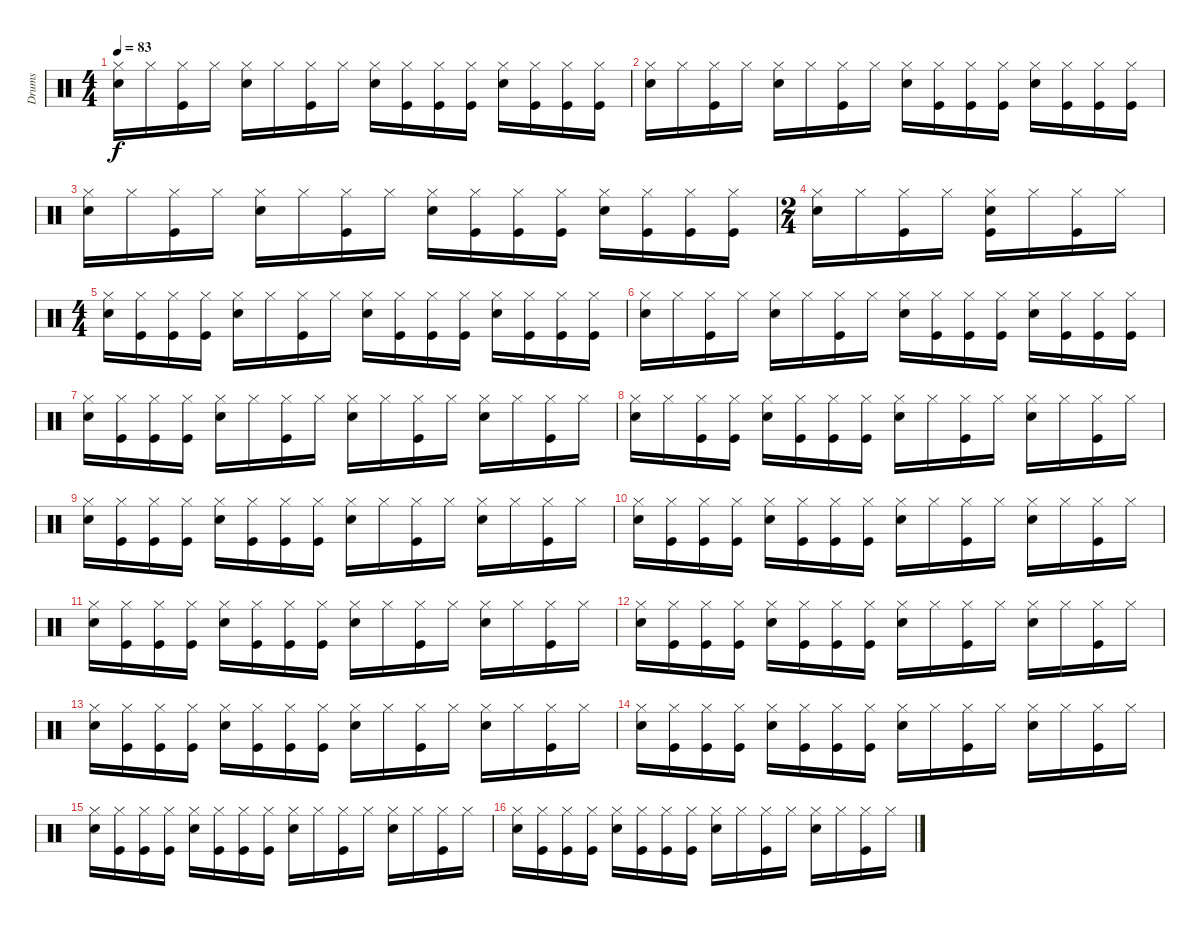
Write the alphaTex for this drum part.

\track ("Drums" "Drums") {instrument percussion}
\staff {score}
\articulation defaults
\ts (4 4)
\tempo 83
\clef neutral
\ks c
("Snare (hit) 2" "Hi-Hat (closed)").16{dy f} "Hi-Hat (closed)".16 ("Kick (hit)" "Hi-Hat (closed)").16 "Hi-Hat (closed)".16 ("Snare (hit) 2" "Hi-Hat (closed)").16 "Hi-Hat (closed)".16 ("Kick (hit)" "Hi-Hat (closed)").16 "Hi-Hat (closed)".16 ("Snare (hit) 2" "Hi-Hat (closed)").16 ("Kick (hit)" "Hi-Hat (closed)").16 ("Kick (hit)" "Hi-Hat (closed)").16 ("Kick (hit)" "Hi-Hat (closed)").16 ("Snare (hit) 2" "Hi-Hat (closed)").16 ("Kick (hit)" "Hi-Hat (closed)").16 ("Kick (hit)" "Hi-Hat (closed)").16 ("Kick (hit)" "Hi-Hat (closed)").16 |
("Snare (hit) 2" "Hi-Hat (closed)").16 "Hi-Hat (closed)".16 ("Kick (hit)" "Hi-Hat (closed)").16 "Hi-Hat (closed)".16 ("Snare (hit) 2" "Hi-Hat (closed)").16 "Hi-Hat (closed)".16 ("Kick (hit)" "Hi-Hat (closed)").16 "Hi-Hat (closed)".16 ("Snare (hit) 2" "Hi-Hat (closed)").16 ("Kick (hit)" "Hi-Hat (closed)").16 ("Kick (hit)" "Hi-Hat (closed)").16 ("Kick (hit)" "Hi-Hat (closed)").16 ("Snare (hit) 2" "Hi-Hat (closed)").16 ("Kick (hit)" "Hi-Hat (closed)").16 ("Kick (hit)" "Hi-Hat (closed)").16 ("Kick (hit)" "Hi-Hat (closed)").16 |
("Snare (hit) 2" "Hi-Hat (closed)").16 "Hi-Hat (closed)".16 ("Kick (hit)" "Hi-Hat (closed)").16 "Hi-Hat (closed)".16 ("Snare (hit) 2" "Hi-Hat (closed)").16 "Hi-Hat (closed)".16 ("Kick (hit)" "Hi-Hat (closed)").16 "Hi-Hat (closed)".16 ("Snare (hit) 2" "Hi-Hat (closed)").16 ("Kick (hit)" "Hi-Hat (closed)").16 ("Kick (hit)" "Hi-Hat (closed)").16 ("Kick (hit)" "Hi-Hat (closed)").16 ("Snare (hit) 2" "Hi-Hat (closed)").16 ("Kick (hit)" "Hi-Hat (closed)").16 ("Kick (hit)" "Hi-Hat (closed)").16 ("Kick (hit)" "Hi-Hat (closed)").16 |
\ts (2 4)
("Snare (hit) 2" "Hi-Hat (closed)").16 "Hi-Hat (closed)".16 ("Kick (hit)" "Hi-Hat (closed)").16 "Hi-Hat (closed)".16 ("Kick (hit)" "Snare (hit) 2" "Hi-Hat (closed)").16 "Hi-Hat (closed)".16 ("Kick (hit)" "Hi-Hat (closed)").16 "Hi-Hat (closed)".16 |
\ts (4 4)
("Snare (hit) 2" "Hi-Hat (closed)").16 ("Kick (hit)" "Hi-Hat (closed)").16 ("Kick (hit)" "Hi-Hat (closed)").16 ("Kick (hit)" "Hi-Hat (closed)").16 ("Snare (hit) 2" "Hi-Hat (closed)").16 "Hi-Hat (closed)".16 ("Kick (hit)" "Hi-Hat (closed)").16 "Hi-Hat (closed)".16 ("Snare (hit) 2" "Hi-Hat (closed)").16 ("Kick (hit)" "Hi-Hat (closed)").16 ("Kick (hit)" "Hi-Hat (closed)").16 ("Kick (hit)" "Hi-Hat (closed)").16 ("Snare (hit) 2" "Hi-Hat (closed)").16 ("Kick (hit)" "Hi-Hat (closed)").16 ("Kick (hit)" "Hi-Hat (closed)").16 ("Kick (hit)" "Hi-Hat (closed)").16 |
("Snare (hit) 2" "Hi-Hat (closed)").16 "Hi-Hat (closed)".16 ("Kick (hit)" "Hi-Hat (closed)").16 "Hi-Hat (closed)".16 ("Snare (hit) 2" "Hi-Hat (closed)").16 "Hi-Hat (closed)".16 ("Kick (hit)" "Hi-Hat (closed)").16 "Hi-Hat (closed)".16 ("Snare (hit) 2" "Hi-Hat (closed)").16 ("Kick (hit)" "Hi-Hat (closed)").16 ("Kick (hit)" "Hi-Hat (closed)").16 ("Kick (hit)" "Hi-Hat (closed)").16 ("Snare (hit) 2" "Hi-Hat (closed)").16 ("Kick (hit)" "Hi-Hat (closed)").16 ("Kick (hit)" "Hi-Hat (closed)").16 ("Kick (hit)" "Hi-Hat (closed)").16 |
("Snare (hit) 2" "Hi-Hat (closed)").16 ("Kick (hit)" "Hi-Hat (closed)").16 ("Kick (hit)" "Hi-Hat (closed)").16 ("Kick (hit)" "Hi-Hat (closed)").16 ("Snare (hit) 2" "Hi-Hat (closed)").16 "Hi-Hat (closed)".16 ("Kick (hit)" "Hi-Hat (closed)").16 "Hi-Hat (closed)".16 ("Snare (hit) 2" "Hi-Hat (closed)").16 "Hi-Hat (closed)".16 ("Kick (hit)" "Hi-Hat (closed)").16 "Hi-Hat (closed)".16 ("Snare (hit) 2" "Hi-Hat (closed)").16 "Hi-Hat (closed)".16 ("Kick (hit)" "Hi-Hat (closed)").16 "Hi-Hat (closed)".16 |
("Snare (hit) 2" "Hi-Hat (closed)").16 "Hi-Hat (closed)".16 ("Kick (hit)" "Hi-Hat (closed)").16 ("Kick (hit)" "Hi-Hat (closed)").16 ("Snare (hit) 2" "Hi-Hat (closed)").16 ("Kick (hit)" "Hi-Hat (closed)").16 ("Kick (hit)" "Hi-Hat (closed)").16 ("Kick (hit)" "Hi-Hat (closed)").16 ("Snare (hit) 2" "Hi-Hat (closed)").16 "Hi-Hat (closed)".16 ("Kick (hit)" "Hi-Hat (closed)").16 "Hi-Hat (closed)".16 ("Snare (hit) 2" "Hi-Hat (closed)").16 "Hi-Hat (closed)".16 ("Kick (hit)" "Hi-Hat (closed)").16 "Hi-Hat (closed)".16 |
("Snare (hit) 2" "Hi-Hat (closed)").16 ("Kick (hit)" "Hi-Hat (closed)").16 ("Kick (hit)" "Hi-Hat (closed)").16 ("Kick (hit)" "Hi-Hat (closed)").16 ("Snare (hit) 2" "Hi-Hat (closed)").16 ("Kick (hit)" "Hi-Hat (closed)").16 ("Kick (hit)" "Hi-Hat (closed)").16 ("Kick (hit)" "Hi-Hat (closed)").16 ("Snare (hit) 2" "Hi-Hat (closed)").16 "Hi-Hat (closed)".16 ("Kick (hit)" "Hi-Hat (closed)").16 "Hi-Hat (closed)".16 ("Snare (hit) 2" "Hi-Hat (closed)").16 "Hi-Hat (closed)".16 ("Kick (hit)" "Hi-Hat (closed)").16 "Hi-Hat (closed)".16 |
("Snare (hit) 2" "Hi-Hat (closed)").16 ("Kick (hit)" "Hi-Hat (closed)").16 ("Kick (hit)" "Hi-Hat (closed)").16 ("Kick (hit)" "Hi-Hat (closed)").16 ("Snare (hit) 2" "Hi-Hat (closed)").16 ("Kick (hit)" "Hi-Hat (closed)").16 ("Kick (hit)" "Hi-Hat (closed)").16 ("Kick (hit)" "Hi-Hat (closed)").16 ("Snare (hit) 2" "Hi-Hat (closed)").16 "Hi-Hat (closed)".16 ("Kick (hit)" "Hi-Hat (closed)").16 "Hi-Hat (closed)".16 ("Snare (hit) 2" "Hi-Hat (closed)").16 "Hi-Hat (closed)".16 ("Kick (hit)" "Hi-Hat (closed)").16 "Hi-Hat (closed)".16 |
("Snare (hit) 2" "Hi-Hat (closed)").16 ("Kick (hit)" "Hi-Hat (closed)").16 ("Kick (hit)" "Hi-Hat (closed)").16 ("Kick (hit)" "Hi-Hat (closed)").16 ("Snare (hit) 2" "Hi-Hat (closed)").16 ("Kick (hit)" "Hi-Hat (closed)").16 ("Kick (hit)" "Hi-Hat (closed)").16 ("Kick (hit)" "Hi-Hat (closed)").16 ("Snare (hit) 2" "Hi-Hat (closed)").16 "Hi-Hat (closed)".16 ("Kick (hit)" "Hi-Hat (closed)").16 "Hi-Hat (closed)".16 ("Snare (hit) 2" "Hi-Hat (closed)").16 "Hi-Hat (closed)".16 ("Kick (hit)" "Hi-Hat (closed)").16 "Hi-Hat (closed)".16 |
("Snare (hit) 2" "Hi-Hat (closed)").16 ("Kick (hit)" "Hi-Hat (closed)").16 ("Kick (hit)" "Hi-Hat (closed)").16 ("Kick (hit)" "Hi-Hat (closed)").16 ("Snare (hit) 2" "Hi-Hat (closed)").16 ("Kick (hit)" "Hi-Hat (closed)").16 ("Kick (hit)" "Hi-Hat (closed)").16 ("Kick (hit)" "Hi-Hat (closed)").16 ("Snare (hit) 2" "Hi-Hat (closed)").16 "Hi-Hat (closed)".16 ("Kick (hit)" "Hi-Hat (closed)").16 "Hi-Hat (closed)".16 ("Snare (hit) 2" "Hi-Hat (closed)").16 "Hi-Hat (closed)".16 ("Kick (hit)" "Hi-Hat (closed)").16 "Hi-Hat (closed)".16 |
("Snare (hit) 2" "Hi-Hat (closed)").16 ("Kick (hit)" "Hi-Hat (closed)").16 ("Kick (hit)" "Hi-Hat (closed)").16 ("Kick (hit)" "Hi-Hat (closed)").16 ("Snare (hit) 2" "Hi-Hat (closed)").16 ("Kick (hit)" "Hi-Hat (closed)").16 ("Kick (hit)" "Hi-Hat (closed)").16 ("Kick (hit)" "Hi-Hat (closed)").16 ("Snare (hit) 2" "Hi-Hat (closed)").16 "Hi-Hat (closed)".16 ("Kick (hit)" "Hi-Hat (closed)").16 "Hi-Hat (closed)".16 ("Snare (hit) 2" "Hi-Hat (closed)").16 "Hi-Hat (closed)".16 ("Kick (hit)" "Hi-Hat (closed)").16 "Hi-Hat (closed)".16 |
("Snare (hit) 2" "Hi-Hat (closed)").16 ("Kick (hit)" "Hi-Hat (closed)").16 ("Kick (hit)" "Hi-Hat (closed)").16 ("Kick (hit)" "Hi-Hat (closed)").16 ("Snare (hit) 2" "Hi-Hat (closed)").16 ("Kick (hit)" "Hi-Hat (closed)").16 ("Kick (hit)" "Hi-Hat (closed)").16 ("Kick (hit)" "Hi-Hat (closed)").16 ("Snare (hit) 2" "Hi-Hat (closed)").16 "Hi-Hat (closed)".16 ("Kick (hit)" "Hi-Hat (closed)").16 "Hi-Hat (closed)".16 ("Snare (hit) 2" "Hi-Hat (closed)").16 "Hi-Hat (closed)".16 ("Kick (hit)" "Hi-Hat (closed)").16 "Hi-Hat (closed)".16 |
("Snare (hit) 2" "Hi-Hat (closed)").16 ("Kick (hit)" "Hi-Hat (closed)").16 ("Kick (hit)" "Hi-Hat (closed)").16 ("Kick (hit)" "Hi-Hat (closed)").16 ("Snare (hit) 2" "Hi-Hat (closed)").16 ("Kick (hit)" "Hi-Hat (closed)").16 ("Kick (hit)" "Hi-Hat (closed)").16 ("Kick (hit)" "Hi-Hat (closed)").16 ("Snare (hit) 2" "Hi-Hat (closed)").16 "Hi-Hat (closed)".16 ("Kick (hit)" "Hi-Hat (closed)").16 "Hi-Hat (closed)".16 ("Snare (hit) 2" "Hi-Hat (closed)").16 "Hi-Hat (closed)".16 ("Kick (hit)" "Hi-Hat (closed)").16 "Hi-Hat (closed)".16 |
("Snare (hit) 2" "Hi-Hat (closed)").16 ("Kick (hit)" "Hi-Hat (closed)").16 ("Kick (hit)" "Hi-Hat (closed)").16 ("Kick (hit)" "Hi-Hat (closed)").16 ("Snare (hit) 2" "Hi-Hat (closed)").16 ("Kick (hit)" "Hi-Hat (closed)").16 ("Kick (hit)" "Hi-Hat (closed)").16 ("Kick (hit)" "Hi-Hat (closed)").16 ("Snare (hit) 2" "Hi-Hat (closed)").16 "Hi-Hat (closed)".16 ("Kick (hit)" "Hi-Hat (closed)").16 "Hi-Hat (closed)".16 ("Snare (hit) 2" "Hi-Hat (closed)").16 "Hi-Hat (closed)".16 ("Kick (hit)" "Hi-Hat (closed)").16 "Hi-Hat (closed)".16
